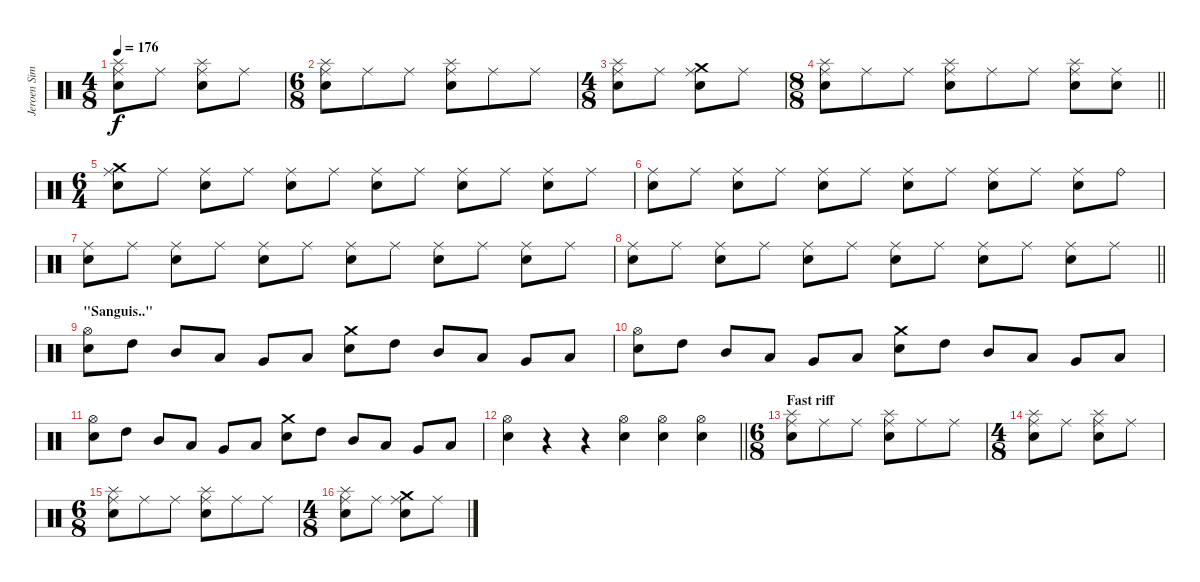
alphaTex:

\track ("Jeroen Simons" "Jeroen Sim") {instrument percussion}
\staff {score}
\articulation defaults
\ts (4 8)
\tempo 176
\clef neutral
\ks c
("Ride (middle)" "Splash (hit)" "Electric Snare (hit)").8{dy f} "Ride (middle)".8 ("Ride (middle)" "Splash (hit)" "Electric Snare (hit)").8 "Ride (middle)".8 |
\ts (6 8)
("Ride (middle)" "Splash (hit)" "Electric Snare (hit)").8 "Ride (middle)".8 "Ride (middle)".8 ("Ride (middle)" "Splash (hit)" "Electric Snare (hit)").8 "Ride (middle)".8 "Ride (middle)".8 |
\ts (4 8)
("Ride (middle)" "Splash (hit)" "Electric Snare (hit)").8 "Ride (middle)".8 ("Ride (middle)" "Crash medium (hit)" "Electric Snare (hit)").8 "Ride (middle)".8 |
\ts (8 8)
\barLineRight lightlight
("Ride (middle)" "Splash (hit)" "Electric Snare (hit)").8 "Ride (middle)".8 "Ride (middle)".8 ("Ride (middle)" "Splash (hit)" "Electric Snare (hit)").8 "Ride (middle)".8 "Ride (middle)".8 ("Ride (middle)" "Splash (hit)" "Electric Snare (hit)").8 ("Ride (middle)" "Electric Snare (hit)").8 |
\ts (6 4)
\section ("" "")
("Ride (middle)" "Electric Snare (hit)" "Crash medium (hit)").8 "Ride (middle)".8 ("Ride (middle)" "Electric Snare (hit)").8 "Ride (middle)".8 ("Ride (middle)" "Electric Snare (hit)").8 "Ride (middle)".8 ("Ride (middle)" "Electric Snare (hit)").8 "Ride (middle)".8 ("Ride (middle)" "Electric Snare (hit)").8 "Ride (middle)".8 ("Ride (middle)" "Electric Snare (hit)").8 "Ride (middle)".8 |
("Ride (middle)" "Electric Snare (hit)").8 "Ride (middle)".8 ("Ride (middle)" "Electric Snare (hit)").8 "Ride (middle)".8 ("Ride (middle)" "Electric Snare (hit)").8 "Ride (middle)".8 ("Ride (middle)" "Electric Snare (hit)").8 "Ride (middle)".8 ("Ride (middle)" "Electric Snare (hit)").8 "Ride (middle)".8 ("Ride (middle)" "Electric Snare (hit)").8 "Ride (bell)".8 |
("Ride (middle)" "Electric Snare (hit)").8 "Ride (middle)".8 ("Ride (middle)" "Electric Snare (hit)").8 "Ride (middle)".8 ("Ride (middle)" "Electric Snare (hit)").8 "Ride (middle)".8 ("Ride (middle)" "Electric Snare (hit)").8 "Ride (middle)".8 ("Ride (middle)" "Electric Snare (hit)").8 "Ride (middle)".8 ("Ride (middle)" "Electric Snare (hit)").8 "Ride (middle)".8 |
\barLineRight lightlight
("Ride (middle)" "Electric Snare (hit)").8 "Ride (middle)".8 ("Ride (middle)" "Electric Snare (hit)").8 "Ride (middle)".8 ("Ride (middle)" "Electric Snare (hit)").8 "Ride (middle)".8 ("Ride (middle)" "Electric Snare (hit)").8 "Ride (middle)".8 ("Ride (middle)" "Electric Snare (hit)").8 "Ride (middle)".8 ("Ride (middle)" "Electric Snare (hit)").8 "Ride (middle)".8 |
\section ("" "\"Sanguis..\"")
("Hi-Hat (open)" "Snare (hit) 2").8 "High Tom (hit)".8 "Mid Tom (hit)".8 "Low Tom (hit)".8 "Very Low Tom (hit)".8 "Low Floor Tom (hit)".8 ("Crash medium (hit)" "Snare (hit) 2").8 "High Tom (hit)".8 "Mid Tom (hit)".8 "Low Tom (hit)".8 "Very Low Tom (hit)".8 "Low Floor Tom (hit)".8 |
("Hi-Hat (open)" "Snare (hit) 2").8 "High Tom (hit)".8 "Mid Tom (hit)".8 "Low Tom (hit)".8 "Very Low Tom (hit)".8 "Low Floor Tom (hit)".8 ("Crash medium (hit)" "Snare (hit) 2").8 "High Tom (hit)".8 "Mid Tom (hit)".8 "Low Tom (hit)".8 "Very Low Tom (hit)".8 "Low Floor Tom (hit)".8 |
("Hi-Hat (open)" "Snare (hit) 2").8 "High Tom (hit)".8 "Mid Tom (hit)".8 "Low Tom (hit)".8 "Very Low Tom (hit)".8 "Low Floor Tom (hit)".8 ("Crash medium (hit)" "Snare (hit) 2").8 "High Tom (hit)".8 "Mid Tom (hit)".8 "Low Tom (hit)".8 "Very Low Tom (hit)".8 "Low Floor Tom (hit)".8 |
\barLineRight lightlight
("Hi-Hat (open)" "Snare (hit) 2").4 r.4 r.4 ("Hi-Hat (open)" "Electric Snare (hit)").4 ("Hi-Hat (open)" "Electric Snare (hit)").4 ("Hi-Hat (open)" "Electric Snare (hit)").4 |
\ts (6 8)
\section ("" "Fast riff")
("Ride (middle)" "Splash (hit)" "Electric Snare (hit)").8 "Ride (middle)".8 "Ride (middle)".8 ("Ride (middle)" "Splash (hit)" "Electric Snare (hit)").8 "Ride (middle)".8 "Ride (middle)".8 |
\ts (4 8)
("Ride (middle)" "Splash (hit)" "Electric Snare (hit)").8 "Ride (middle)".8 ("Ride (middle)" "Splash (hit)" "Electric Snare (hit)").8 "Ride (middle)".8 |
\ts (6 8)
("Ride (middle)" "Splash (hit)" "Electric Snare (hit)").8 "Ride (middle)".8 "Ride (middle)".8 ("Ride (middle)" "Splash (hit)" "Electric Snare (hit)").8 "Ride (middle)".8 "Ride (middle)".8 |
\ts (4 8)
("Ride (middle)" "Splash (hit)" "Electric Snare (hit)").8 "Ride (middle)".8 ("Ride (middle)" "Crash medium (hit)" "Electric Snare (hit)").8 "Ride (middle)".8
